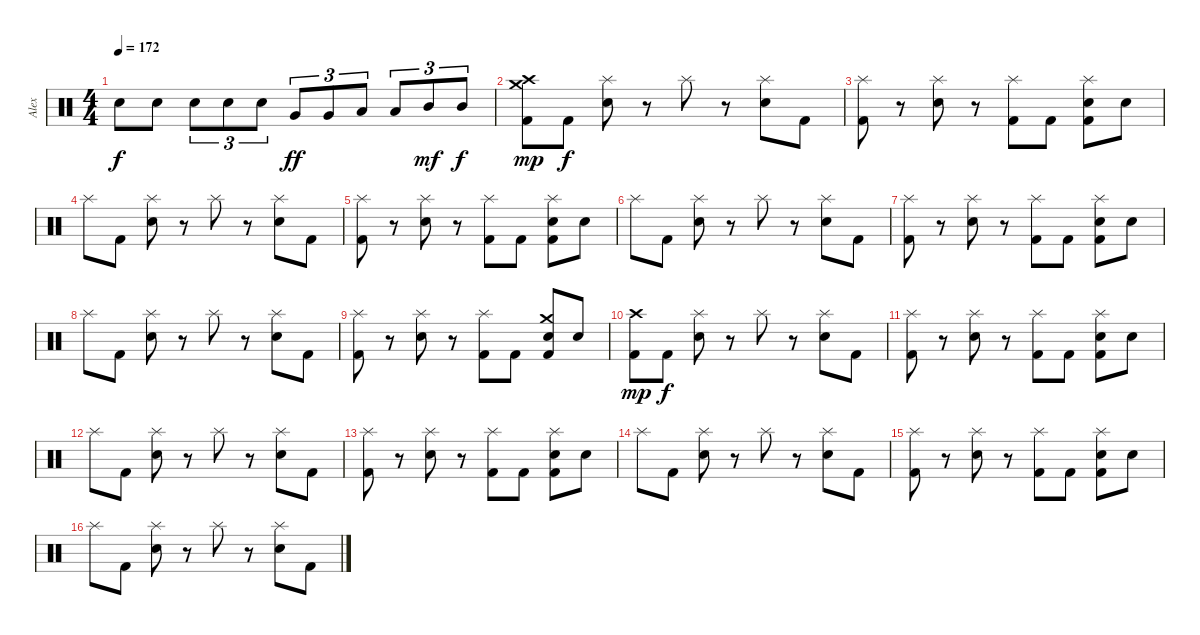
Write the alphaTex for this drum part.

\track ("Alex" "Alex") {instrument percussion}
\staff {score}
\articulation defaults
\ts (4 4)
\tempo 172
\clef neutral
\ks c "Electric Snare (hit)".8{dy f} "Electric Snare (hit)".8 "Electric Snare (hit)".8{tu (3 2)} "Electric Snare (hit)".8{tu (3 2)} "Electric Snare (hit)".8{tu (3 2)} "Very Low Tom (hit)".8{tu (3 2) dy ff} "Very Low Tom (hit)".8{tu (3 2)} "Low Tom (hit)".8{tu (3 2)} "Low Tom (hit)".8{tu (3 2)} "Mid Tom (hit)".8{tu (3 2) dy mf} "Mid Tom (hit)".8{tu (3 2) dy f}
|
("Crash high (hit)" "Crash medium (hit)" "Kick (hit) 2").8{dy mp} "Kick (hit) 2".8{dy f} ("Splash (hit)" "Electric Snare (hit)").8 r.8 "Splash (hit)".8 r.8 ("Splash (hit)" "Electric Snare (hit)").8 "Kick (hit) 2".8 |
("Splash (hit)" "Kick (hit) 2").8 r.8 ("Splash (hit)" "Electric Snare (hit)").8 r.8 ("Splash (hit)" "Kick (hit) 2").8 "Kick (hit) 2".8 ("Splash (hit)" "Electric Snare (hit)" "Kick (hit) 2").8 "Electric Snare (hit)".8 |
"Splash (hit)".8 "Kick (hit) 2".8 ("Splash (hit)" "Electric Snare (hit)").8 r.8 "Splash (hit)".8 r.8 ("Splash (hit)" "Electric Snare (hit)").8 "Kick (hit) 2".8 |
("Splash (hit)" "Kick (hit) 2").8 r.8 ("Splash (hit)" "Electric Snare (hit)").8 r.8 ("Splash (hit)" "Kick (hit) 2").8 "Kick (hit) 2".8 ("Splash (hit)" "Electric Snare (hit)" "Kick (hit) 2").8 "Electric Snare (hit)".8 |
"Splash (hit)".8 "Kick (hit) 2".8 ("Splash (hit)" "Electric Snare (hit)").8 r.8 "Splash (hit)".8 r.8 ("Splash (hit)" "Electric Snare (hit)").8 "Kick (hit) 2".8 |
("Splash (hit)" "Kick (hit) 2").8 r.8 ("Splash (hit)" "Electric Snare (hit)").8 r.8 ("Splash (hit)" "Kick (hit) 2").8 "Kick (hit) 2".8 ("Splash (hit)" "Electric Snare (hit)" "Kick (hit) 2").8 "Electric Snare (hit)".8 |
"Splash (hit)".8 "Kick (hit) 2".8 ("Splash (hit)" "Electric Snare (hit)").8 r.8 "Splash (hit)".8 r.8 ("Splash (hit)" "Electric Snare (hit)").8 "Kick (hit) 2".8 |
("Splash (hit)" "Kick (hit) 2").8 r.8 ("Splash (hit)" "Electric Snare (hit)").8 r.8 ("Splash (hit)" "Kick (hit) 2").8 "Kick (hit) 2".8 ("Crash medium (hit)" "Electric Snare (hit)" "Kick (hit) 2").8 "Electric Snare (hit)".8 |
("Crash high (hit)" "Kick (hit) 2").8{dy mp} "Kick (hit) 2".8{dy f} ("Splash (hit)" "Electric Snare (hit)").8 r.8 "Splash (hit)".8 r.8 ("Splash (hit)" "Electric Snare (hit)").8 "Kick (hit) 2".8 |
("Splash (hit)" "Kick (hit) 2").8 r.8 ("Splash (hit)" "Electric Snare (hit)").8 r.8 ("Splash (hit)" "Kick (hit) 2").8 "Kick (hit) 2".8 ("Splash (hit)" "Electric Snare (hit)" "Kick (hit) 2").8 "Electric Snare (hit)".8 |
"Splash (hit)".8 "Kick (hit) 2".8 ("Splash (hit)" "Electric Snare (hit)").8 r.8 "Splash (hit)".8 r.8 ("Splash (hit)" "Electric Snare (hit)").8 "Kick (hit) 2".8 |
("Splash (hit)" "Kick (hit) 2").8 r.8 ("Splash (hit)" "Electric Snare (hit)").8 r.8 ("Splash (hit)" "Kick (hit) 2").8 "Kick (hit) 2".8 ("Splash (hit)" "Electric Snare (hit)" "Kick (hit) 2").8 "Electric Snare (hit)".8 |
"Splash (hit)".8 "Kick (hit) 2".8 ("Splash (hit)" "Electric Snare (hit)").8 r.8 "Splash (hit)".8 r.8 ("Splash (hit)" "Electric Snare (hit)").8 "Kick (hit) 2".8 |
("Splash (hit)" "Kick (hit) 2").8 r.8 ("Splash (hit)" "Electric Snare (hit)").8 r.8 ("Splash (hit)" "Kick (hit) 2").8 "Kick (hit) 2".8 ("Splash (hit)" "Electric Snare (hit)" "Kick (hit) 2").8 "Electric Snare (hit)".8 |
"Splash (hit)".8 "Kick (hit) 2".8 ("Splash (hit)" "Electric Snare (hit)").8 r.8 "Splash (hit)".8 r.8 ("Splash (hit)" "Electric Snare (hit)").8 "Kick (hit) 2".8
